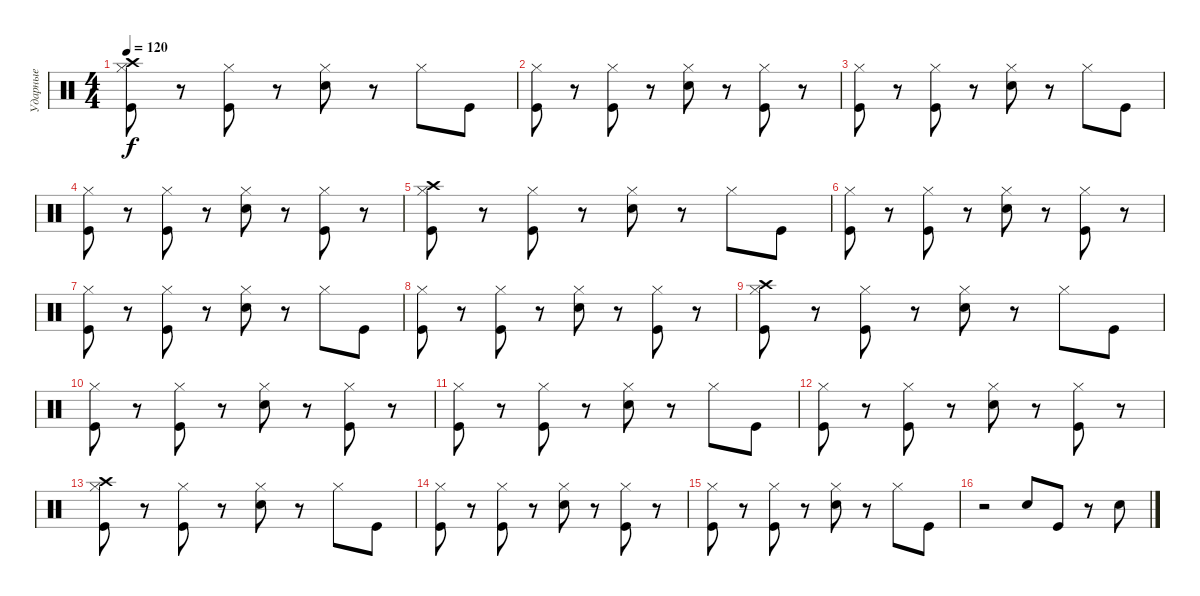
\track ("Ударные" "Ударные") {instrument percussion}
\staff {score}
\articulation defaults
\ts (4 4)
\tempo 120
\clef neutral
\ks c
("Crash high (hit)" "Hi-Hat (closed)" "Kick (hit)").8{dy f} r.8 ("Hi-Hat (closed)" "Kick (hit)").8 r.8 ("Hi-Hat (closed)" "Electric Snare (hit)").8 r.8 "Hi-Hat (closed)".8 "Kick (hit)".8 |
("Hi-Hat (closed)" "Kick (hit)").8 r.8 ("Hi-Hat (closed)" "Kick (hit)").8 r.8 ("Hi-Hat (closed)" "Electric Snare (hit)").8 r.8 ("Hi-Hat (closed)" "Kick (hit)").8 r.8 |
("Hi-Hat (closed)" "Kick (hit)").8 r.8 ("Hi-Hat (closed)" "Kick (hit)").8 r.8 ("Hi-Hat (closed)" "Electric Snare (hit)").8 r.8 "Hi-Hat (closed)".8 "Kick (hit)".8 |
("Hi-Hat (closed)" "Kick (hit)").8 r.8 ("Hi-Hat (closed)" "Kick (hit)").8 r.8 ("Hi-Hat (closed)" "Electric Snare (hit)").8 r.8 ("Hi-Hat (closed)" "Kick (hit)").8 r.8 |
("Crash high (hit)" "Hi-Hat (closed)" "Kick (hit)").8 r.8 ("Hi-Hat (closed)" "Kick (hit)").8 r.8 ("Hi-Hat (closed)" "Electric Snare (hit)").8 r.8 "Hi-Hat (closed)".8 "Kick (hit)".8 |
("Hi-Hat (closed)" "Kick (hit)").8 r.8 ("Hi-Hat (closed)" "Kick (hit)").8 r.8 ("Hi-Hat (closed)" "Electric Snare (hit)").8 r.8 ("Hi-Hat (closed)" "Kick (hit)").8 r.8 |
("Hi-Hat (closed)" "Kick (hit)").8 r.8 ("Hi-Hat (closed)" "Kick (hit)").8 r.8 ("Hi-Hat (closed)" "Electric Snare (hit)").8 r.8 "Hi-Hat (closed)".8 "Kick (hit)".8 |
("Hi-Hat (closed)" "Kick (hit)").8 r.8 ("Hi-Hat (closed)" "Kick (hit)").8 r.8 ("Hi-Hat (closed)" "Electric Snare (hit)").8 r.8 ("Hi-Hat (closed)" "Kick (hit)").8 r.8 |
("Crash high (hit)" "Hi-Hat (closed)" "Kick (hit)").8 r.8 ("Hi-Hat (closed)" "Kick (hit)").8 r.8 ("Hi-Hat (closed)" "Electric Snare (hit)").8 r.8 "Hi-Hat (closed)".8 "Kick (hit)".8 |
("Hi-Hat (closed)" "Kick (hit)").8 r.8 ("Hi-Hat (closed)" "Kick (hit)").8 r.8 ("Hi-Hat (closed)" "Electric Snare (hit)").8 r.8 ("Hi-Hat (closed)" "Kick (hit)").8 r.8 |
("Hi-Hat (closed)" "Kick (hit)").8 r.8 ("Hi-Hat (closed)" "Kick (hit)").8 r.8 ("Hi-Hat (closed)" "Electric Snare (hit)").8 r.8 "Hi-Hat (closed)".8 "Kick (hit)".8 |
("Hi-Hat (closed)" "Kick (hit)").8 r.8 ("Hi-Hat (closed)" "Kick (hit)").8 r.8 ("Hi-Hat (closed)" "Electric Snare (hit)").8 r.8 ("Hi-Hat (closed)" "Kick (hit)").8 r.8 |
("Crash high (hit)" "Hi-Hat (closed)" "Kick (hit)").8 r.8 ("Hi-Hat (closed)" "Kick (hit)").8 r.8 ("Hi-Hat (closed)" "Electric Snare (hit)").8 r.8 "Hi-Hat (closed)".8 "Kick (hit)".8 |
("Hi-Hat (closed)" "Kick (hit)").8 r.8 ("Hi-Hat (closed)" "Kick (hit)").8 r.8 ("Hi-Hat (closed)" "Electric Snare (hit)").8 r.8 ("Hi-Hat (closed)" "Kick (hit)").8 r.8 |
("Hi-Hat (closed)" "Kick (hit)").8 r.8 ("Hi-Hat (closed)" "Kick (hit)").8 r.8 ("Hi-Hat (closed)" "Electric Snare (hit)").8 r.8 "Hi-Hat (closed)".8 "Kick (hit)".8 |
r.2 "Electric Snare (hit)".8 "Kick (hit)".8 r.8 "Electric Snare (hit)".8
